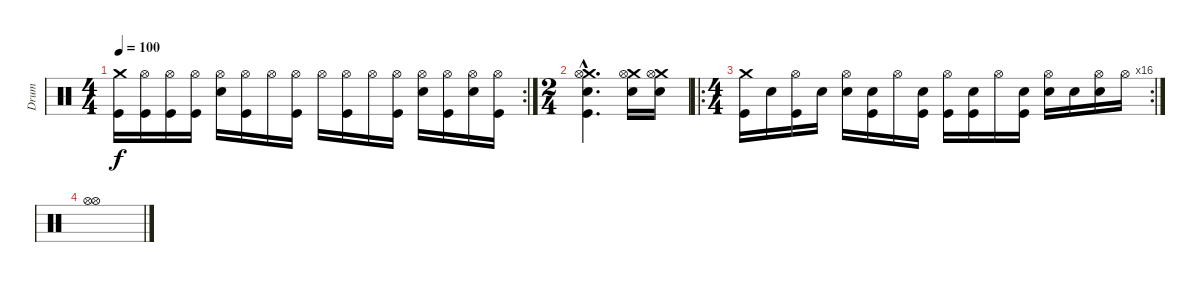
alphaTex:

\track ("Drum" "Drum") {instrument percussion}
\staff {score}
\articulation defaults
\rc 2
\ts (4 4)
\tempo 100
\clef neutral
\ks c
("Crash medium (hit)" "Kick (hit)").16{dy f} ("Hi-Hat (open)" "Kick (hit)").16 ("Hi-Hat (open)" "Kick (hit)").16 ("Hi-Hat (open)" "Kick (hit)").16 ("Hi-Hat (open)" "Electric Snare (hit)").16 ("Hi-Hat (open)" "Kick (hit)").16 "Hi-Hat (open)".16 ("Hi-Hat (open)" "Kick (hit)").16 "Hi-Hat (open)".16 ("Hi-Hat (open)" "Kick (hit)").16 "Hi-Hat (open)".16 ("Hi-Hat (open)" "Kick (hit)").16 ("Hi-Hat (open)" "Electric Snare (hit)").16 ("Hi-Hat (open)" "Kick (hit)").16 ("Hi-Hat (open)" "Electric Snare (hit)").16 ("Hi-Hat (open)" "Kick (hit)").16 |
\ts (2 4)
("Crash medium (hit)"{hac} "Hi-Hat (open)"{hac} "Electric Snare (hit)"{hac} "Kick (hit)"{hac}).4{d} ("Crash medium (hit)" "Hi-Hat (open)" "Electric Snare (hit)").16 ("Crash medium (hit)" "Hi-Hat (open)" "Electric Snare (hit)").16 |
\ro
\rc 16
\ts (4 4)
("Crash medium (hit)" "Kick (hit)").16 "Snare (hit)".16 ("Hi-Hat (open)" "Kick (hit)").16 "Snare (hit)".16 ("Hi-Hat (open)" "Electric Snare (hit)").16 ("Snare (hit)" "Kick (hit)").16 "Hi-Hat (open)".16 ("Snare (hit)" "Kick (hit)").16 ("Hi-Hat (open)" "Kick (hit)").16 ("Snare (hit)" "Kick (hit)").16 "Hi-Hat (open)".16 ("Snare (hit)" "Kick (hit)").16 ("Hi-Hat (open)" "Electric Snare (hit)").16 "Snare (hit)".16 ("Hi-Hat (open)" "Electric Snare (hit)").16 "Hi-Hat (open)".16 |
("Hi-Hat (open)" "Hi-Hat (open)").1
